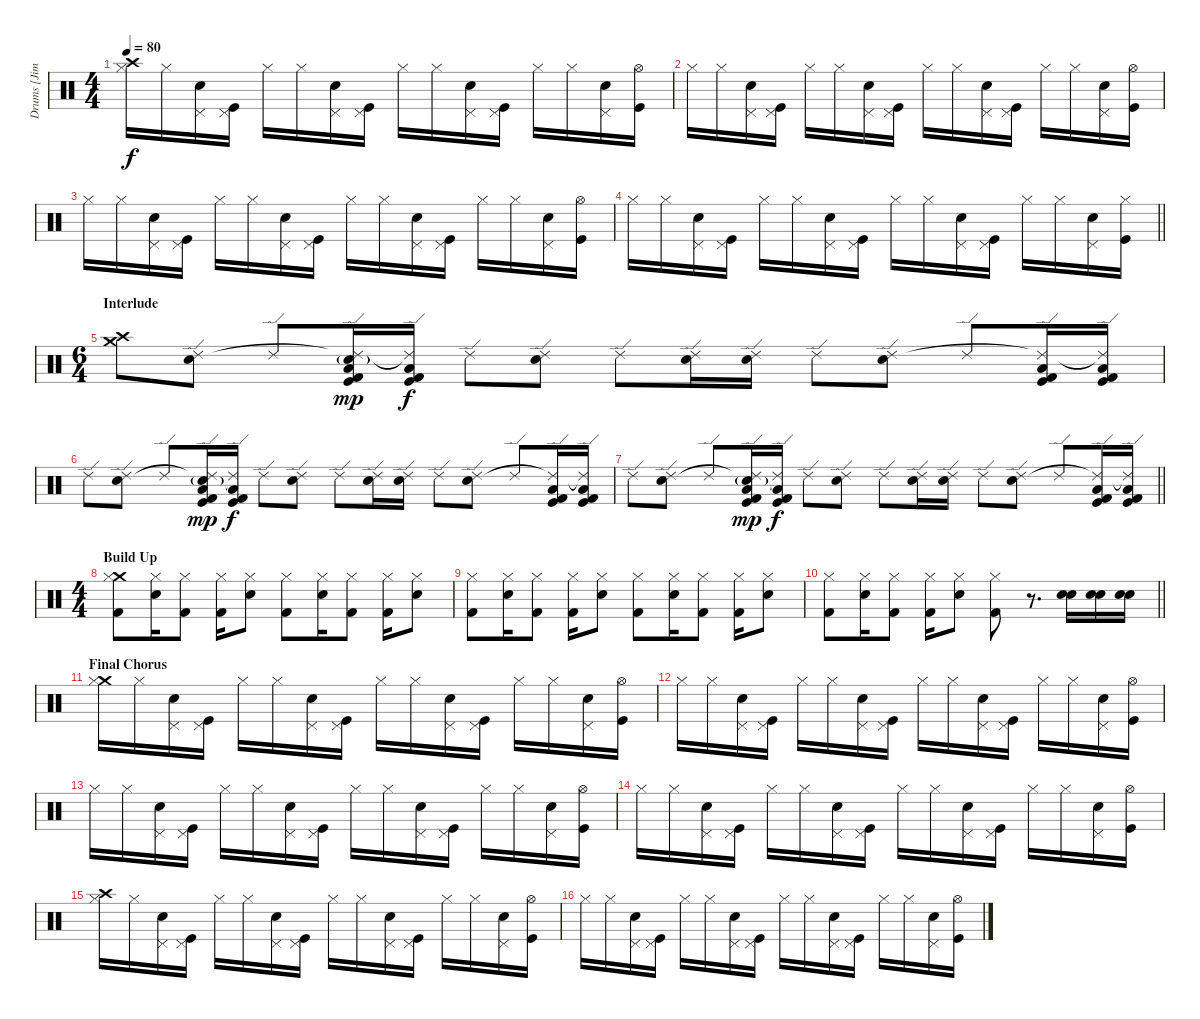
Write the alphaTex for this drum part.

\track ("Drums [Jim Duguid]" "Drums [Jim") {instrument percussion}
\staff {score}
\articulation defaults
\ts (4 4)
\tempo 80
\clef neutral
\ks c
("Crash high (hit)" "Hi-Hat (closed)").16{dy f} "Hi-Hat (closed)".16 ("Pedal Hi-Hat (hit)" "Snare (hit) 2").16 ("Pedal Hi-Hat (hit)" "Kick (hit)").16 "Hi-Hat (closed)".16 "Hi-Hat (closed)".16 ("Pedal Hi-Hat (hit)" "Snare (hit) 2").16 ("Pedal Hi-Hat (hit)" "Kick (hit)").16 "Hi-Hat (closed)".16 "Hi-Hat (closed)".16 ("Pedal Hi-Hat (hit)" "Snare (hit) 2").16 ("Pedal Hi-Hat (hit)" "Kick (hit)").16 "Hi-Hat (closed)".16 "Hi-Hat (closed)".16 ("Pedal Hi-Hat (hit)" "Snare (hit) 2").16 ("Hi-Hat (open)" "Kick (hit)").16 |
"Hi-Hat (closed)".16 "Hi-Hat (closed)".16 ("Pedal Hi-Hat (hit)" "Snare (hit) 2").16 ("Pedal Hi-Hat (hit)" "Kick (hit)").16 "Hi-Hat (closed)".16 "Hi-Hat (closed)".16 ("Pedal Hi-Hat (hit)" "Snare (hit) 2").16 ("Pedal Hi-Hat (hit)" "Kick (hit)").16 "Hi-Hat (closed)".16 "Hi-Hat (closed)".16 ("Pedal Hi-Hat (hit)" "Snare (hit) 2").16 ("Pedal Hi-Hat (hit)" "Kick (hit)").16 "Hi-Hat (closed)".16 "Hi-Hat (closed)".16 ("Pedal Hi-Hat (hit)" "Snare (hit) 2").16 ("Hi-Hat (open)" "Kick (hit)").16 |
"Hi-Hat (closed)".16 "Hi-Hat (closed)".16 ("Pedal Hi-Hat (hit)" "Snare (hit) 2").16 ("Pedal Hi-Hat (hit)" "Kick (hit)").16 "Hi-Hat (closed)".16 "Hi-Hat (closed)".16 ("Pedal Hi-Hat (hit)" "Snare (hit) 2").16 ("Pedal Hi-Hat (hit)" "Kick (hit)").16 "Hi-Hat (closed)".16 "Hi-Hat (closed)".16 ("Pedal Hi-Hat (hit)" "Snare (hit) 2").16 ("Pedal Hi-Hat (hit)" "Kick (hit)").16 "Hi-Hat (closed)".16 "Hi-Hat (closed)".16 ("Pedal Hi-Hat (hit)" "Snare (hit) 2").16 ("Hi-Hat (open)" "Kick (hit)").16 |
\barLineRight lightlight "Hi-Hat (closed)".16 "Hi-Hat (closed)".16
("Pedal Hi-Hat (hit)" "Snare (hit) 2").16 ("Pedal Hi-Hat (hit)" "Kick (hit)").16 "Hi-Hat (closed)".16 "Hi-Hat (closed)".16 ("Pedal Hi-Hat (hit)" "Snare (hit) 2").16 ("Pedal Hi-Hat (hit)" "Kick (hit)").16 "Hi-Hat (closed)".16 "Hi-Hat (closed)".16 ("Pedal Hi-Hat (hit)" "Snare (hit) 2").16 ("Pedal Hi-Hat (hit)" "Kick (hit)").16 "Hi-Hat (closed)".16 "Hi-Hat (closed)".16 ("Pedal Hi-Hat (hit)" "Snare (hit) 2").16 ("Hi-Hat (closed)" "Kick (hit)").16 |
\ts (6 4)
\section ("" "Interlude")
("Crash medium (hit)" "Crash high (hit)").8 ("Ride (edge) 2" "Hand Clap (hit)").8 "Ride (edge) 2".8 ("Low Tom (hit)" "Ride (edge) 2"{t} "Kick (hit)" "Kick (hit) 2" "Hand Clap (hit)"{g}).16{dy mp} ("Low Tom (hit)" "Ride (edge) 2"{t} "Kick (hit)" "Kick (hit) 2").16{dy f} "Ride (edge) 2".8 ("Ride (edge) 2" "Hand Clap (hit)").8 "Ride (edge) 2".8 ("Ride (edge) 2" "Hand Clap (hit)").16 ("Ride (edge) 2" "Hand Clap (hit)").16 "Ride (edge) 2".8 ("Ride (edge) 2" "Hand Clap (hit)").8 "Ride (edge) 2".8 ("Low Tom (hit)" "Ride (edge) 2"{t} "Kick (hit)" "Kick (hit) 2").16 ("Low Tom (hit)" "Ride (edge) 2"{t} "Kick (hit)" "Kick (hit) 2").16 |
"Ride (edge) 2".8 ("Ride (edge) 2" "Hand Clap (hit)").8 "Ride (edge) 2".8 ("Low Tom (hit)" "Ride (edge) 2"{t} "Kick (hit)" "Kick (hit) 2" "Hand Clap (hit)"{g}).16{dy mp} ("Low Tom (hit)" "Ride (edge) 2"{t} "Kick (hit)" "Kick (hit) 2").16{dy f} "Ride (edge) 2".8 ("Ride (edge) 2" "Hand Clap (hit)").8 "Ride (edge) 2".8 ("Ride (edge) 2" "Hand Clap (hit)").16 ("Ride (edge) 2" "Hand Clap (hit)").16 "Ride (edge) 2".8 ("Ride (edge) 2" "Hand Clap (hit)").8 "Ride (edge) 2".8 ("Low Tom (hit)" "Ride (edge) 2"{t} "Kick (hit)" "Kick (hit) 2").16 ("Low Tom (hit)" "Ride (edge) 2"{t} "Kick (hit)" "Kick (hit) 2").16 |
\barLineRight lightlight "Ride (edge) 2".8
("Ride (edge) 2" "Hand Clap (hit)").8 "Ride (edge) 2".8 ("Low Tom (hit)" "Ride (edge) 2"{t} "Kick (hit)" "Kick (hit) 2" "Hand Clap (hit)"{g}).16{dy mp} ("Low Tom (hit)" "Ride (edge) 2"{t} "Kick (hit)" "Kick (hit) 2").16{dy f} "Ride (edge) 2".8 ("Ride (edge) 2" "Hand Clap (hit)").8 "Ride (edge) 2".8 ("Ride (edge) 2" "Hand Clap (hit)").16 ("Ride (edge) 2" "Hand Clap (hit)").16 "Ride (edge) 2".8 ("Ride (edge) 2" "Hand Clap (hit)").8 "Ride (edge) 2".8 ("Low Tom (hit)" "Ride (edge) 2"{t} "Kick (hit)" "Kick (hit) 2").16 ("Low Tom (hit)" "Ride (edge) 2"{t} "Kick (hit)" "Kick (hit) 2").16 |
\ts (4 4)
\section ("" "Build Up")
("Crash medium (hit)" "Hi-Hat (closed)" "Kick (hit) 2").8 ("Hi-Hat (closed)" "Snare (hit) 2").16 ("Hi-Hat (closed)" "Kick (hit) 2").8 ("Hi-Hat (closed)" "Kick (hit) 2").16 ("Hi-Hat (closed)" "Snare (hit) 2").8 ("Hi-Hat (closed)" "Kick (hit) 2").8 ("Hi-Hat (closed)" "Snare (hit) 2").16 ("Hi-Hat (closed)" "Kick (hit) 2").8 ("Hi-Hat (closed)" "Kick (hit) 2").16 ("Hi-Hat (closed)" "Snare (hit) 2").8 |
("Hi-Hat (closed)" "Kick (hit) 2").8 ("Hi-Hat (closed)" "Snare (hit) 2").16 ("Hi-Hat (closed)" "Kick (hit) 2").8 ("Hi-Hat (closed)" "Kick (hit) 2").16 ("Hi-Hat (closed)" "Snare (hit) 2").8 ("Hi-Hat (closed)" "Kick (hit) 2").8 ("Hi-Hat (closed)" "Snare (hit) 2").16 ("Hi-Hat (closed)" "Kick (hit) 2").8 ("Hi-Hat (closed)" "Kick (hit) 2").16 ("Hi-Hat (closed)" "Snare (hit) 2").8 |
\barLineRight lightlight
("Hi-Hat (closed)" "Kick (hit) 2").8 ("Hi-Hat (closed)" "Snare (hit) 2").16 ("Hi-Hat (closed)" "Kick (hit) 2").8 ("Hi-Hat (closed)" "Kick (hit) 2").16 ("Hi-Hat (closed)" "Snare (hit) 2").8 ("Hi-Hat (closed)" "Kick (hit) 2").8 r.8{d} ("Electric Snare (hit)" "Snare (hit) 2").16 ("Electric Snare (hit)" "Snare (hit) 2").16 ("Electric Snare (hit)" "Snare (hit) 2").16 |
\section ("" "Final Chorus")
("Crash medium (hit)" "Hi-Hat (closed)").16 "Hi-Hat (closed)".16 ("Pedal Hi-Hat (hit)" "Snare (hit) 2").16 ("Pedal Hi-Hat (hit)" "Kick (hit)").16 "Hi-Hat (closed)".16 "Hi-Hat (closed)".16 ("Pedal Hi-Hat (hit)" "Snare (hit) 2").16 ("Pedal Hi-Hat (hit)" "Kick (hit)").16 "Hi-Hat (closed)".16 "Hi-Hat (closed)".16 ("Pedal Hi-Hat (hit)" "Snare (hit) 2").16 ("Pedal Hi-Hat (hit)" "Kick (hit)").16 "Hi-Hat (closed)".16 "Hi-Hat (closed)".16 ("Pedal Hi-Hat (hit)" "Snare (hit) 2").16 ("Hi-Hat (open)" "Kick (hit)").16 |
"Hi-Hat (closed)".16 "Hi-Hat (closed)".16 ("Pedal Hi-Hat (hit)" "Snare (hit) 2").16 ("Pedal Hi-Hat (hit)" "Kick (hit)").16 "Hi-Hat (closed)".16 "Hi-Hat (closed)".16 ("Pedal Hi-Hat (hit)" "Snare (hit) 2").16 ("Pedal Hi-Hat (hit)" "Kick (hit)").16 "Hi-Hat (closed)".16 "Hi-Hat (closed)".16 ("Pedal Hi-Hat (hit)" "Snare (hit) 2").16 ("Pedal Hi-Hat (hit)" "Kick (hit)").16 "Hi-Hat (closed)".16 "Hi-Hat (closed)".16 ("Pedal Hi-Hat (hit)" "Snare (hit) 2").16 ("Hi-Hat (open)" "Kick (hit)").16 |
"Hi-Hat (closed)".16 "Hi-Hat (closed)".16 ("Pedal Hi-Hat (hit)" "Snare (hit) 2").16 ("Pedal Hi-Hat (hit)" "Kick (hit)").16 "Hi-Hat (closed)".16 "Hi-Hat (closed)".16 ("Pedal Hi-Hat (hit)" "Snare (hit) 2").16 ("Pedal Hi-Hat (hit)" "Kick (hit)").16 "Hi-Hat (closed)".16 "Hi-Hat (closed)".16 ("Pedal Hi-Hat (hit)" "Snare (hit) 2").16 ("Pedal Hi-Hat (hit)" "Kick (hit)").16 "Hi-Hat (closed)".16 "Hi-Hat (closed)".16 ("Pedal Hi-Hat (hit)" "Snare (hit) 2").16 ("Hi-Hat (open)" "Kick (hit)").16 |
"Hi-Hat (closed)".16 "Hi-Hat (closed)".16 ("Pedal Hi-Hat (hit)" "Snare (hit) 2").16 ("Pedal Hi-Hat (hit)" "Kick (hit)").16 "Hi-Hat (closed)".16 "Hi-Hat (closed)".16 ("Pedal Hi-Hat (hit)" "Snare (hit) 2").16 ("Pedal Hi-Hat (hit)" "Kick (hit)").16 "Hi-Hat (closed)".16 "Hi-Hat (closed)".16 ("Pedal Hi-Hat (hit)" "Snare (hit) 2").16 ("Pedal Hi-Hat (hit)" "Kick (hit)").16 "Hi-Hat (closed)".16 "Hi-Hat (closed)".16 ("Pedal Hi-Hat (hit)" "Snare (hit) 2").16 ("Hi-Hat (open)" "Kick (hit)").16 |
("Crash high (hit)" "Hi-Hat (closed)").16 "Hi-Hat (closed)".16 ("Pedal Hi-Hat (hit)" "Snare (hit) 2").16 ("Pedal Hi-Hat (hit)" "Kick (hit)").16 "Hi-Hat (closed)".16 "Hi-Hat (closed)".16 ("Pedal Hi-Hat (hit)" "Snare (hit) 2").16 ("Pedal Hi-Hat (hit)" "Kick (hit)").16 "Hi-Hat (closed)".16 "Hi-Hat (closed)".16 ("Pedal Hi-Hat (hit)" "Snare (hit) 2").16 ("Pedal Hi-Hat (hit)" "Kick (hit)").16 "Hi-Hat (closed)".16 "Hi-Hat (closed)".16 ("Pedal Hi-Hat (hit)" "Snare (hit) 2").16 ("Hi-Hat (open)" "Kick (hit)").16 |
"Hi-Hat (closed)".16 "Hi-Hat (closed)".16 ("Pedal Hi-Hat (hit)" "Snare (hit) 2").16 ("Pedal Hi-Hat (hit)" "Kick (hit)").16 "Hi-Hat (closed)".16 "Hi-Hat (closed)".16 ("Pedal Hi-Hat (hit)" "Snare (hit) 2").16 ("Pedal Hi-Hat (hit)" "Kick (hit)").16 "Hi-Hat (closed)".16 "Hi-Hat (closed)".16 ("Pedal Hi-Hat (hit)" "Snare (hit) 2").16 ("Pedal Hi-Hat (hit)" "Kick (hit)").16 "Hi-Hat (closed)".16 "Hi-Hat (closed)".16 ("Pedal Hi-Hat (hit)" "Snare (hit) 2").16 ("Hi-Hat (open)" "Kick (hit)").16
